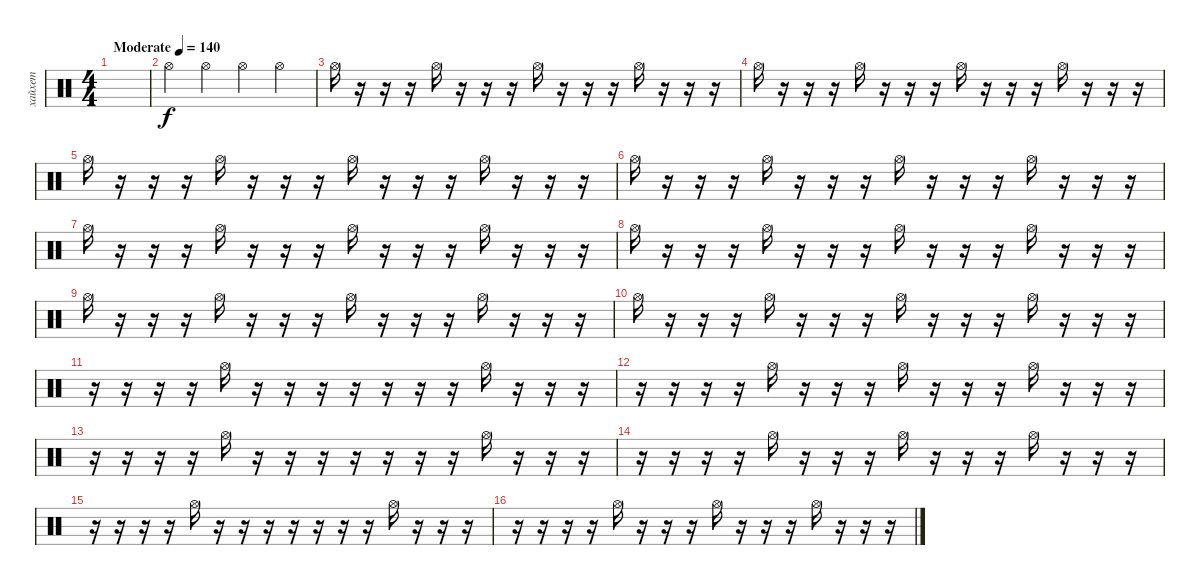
\track ("хайхет" "хайхет") {mute instrument percussion}
\staff {score}
\articulation defaults
\ts (4 4)
\tempo (140 "Moderate")
\clef neutral
\ks c
|
"Hi-Hat (open)".4 "Hi-Hat (open)".4 "Hi-Hat (open)".4 "Hi-Hat (open)".4 |
"Hi-Hat (open)".16 r.16 r.16 r.16 "Hi-Hat (open)".16 r.16 r.16 r.16 "Hi-Hat (open)".16 r.16 r.16 r.16 "Hi-Hat (open)".16 r.16 r.16 r.16 |
"Hi-Hat (open)".16 r.16 r.16 r.16 "Hi-Hat (open)".16 r.16 r.16 r.16 "Hi-Hat (open)".16 r.16 r.16 r.16 "Hi-Hat (open)".16 r.16 r.16 r.16 |
"Hi-Hat (open)".16 r.16 r.16 r.16 "Hi-Hat (open)".16 r.16 r.16 r.16 "Hi-Hat (open)".16 r.16 r.16 r.16 "Hi-Hat (open)".16 r.16 r.16 r.16 |
"Hi-Hat (open)".16 r.16 r.16 r.16 "Hi-Hat (open)".16 r.16 r.16 r.16 "Hi-Hat (open)".16 r.16 r.16 r.16 "Hi-Hat (open)".16 r.16 r.16 r.16 |
"Hi-Hat (open)".16 r.16 r.16 r.16 "Hi-Hat (open)".16 r.16 r.16 r.16 "Hi-Hat (open)".16 r.16 r.16 r.16 "Hi-Hat (open)".16 r.16 r.16 r.16 |
"Hi-Hat (open)".16 r.16 r.16 r.16 "Hi-Hat (open)".16 r.16 r.16 r.16 "Hi-Hat (open)".16 r.16 r.16 r.16 "Hi-Hat (open)".16 r.16 r.16 r.16 |
"Hi-Hat (open)".16 r.16 r.16 r.16 "Hi-Hat (open)".16 r.16 r.16 r.16 "Hi-Hat (open)".16 r.16 r.16 r.16 "Hi-Hat (open)".16 r.16 r.16 r.16 |
"Hi-Hat (open)".16 r.16 r.16 r.16 "Hi-Hat (open)".16 r.16 r.16 r.16 "Hi-Hat (open)".16 r.16 r.16 r.16 "Hi-Hat (open)".16 r.16 r.16 r.16 |
r.16 r.16 r.16 r.16 "Hi-Hat (open)".16 r.16 r.16 r.16 r.16 r.16 r.16 r.16 "Hi-Hat (open)".16 r.16 r.16 r.16 |
r.16 r.16 r.16 r.16 "Hi-Hat (open)".16 r.16 r.16 r.16 "Hi-Hat (open)".16 r.16 r.16 r.16 "Hi-Hat (open)".16 r.16 r.16 r.16 |
r.16 r.16 r.16 r.16 "Hi-Hat (open)".16 r.16 r.16 r.16 r.16 r.16 r.16 r.16 "Hi-Hat (open)".16 r.16 r.16 r.16 |
r.16 r.16 r.16 r.16 "Hi-Hat (open)".16 r.16 r.16 r.16 "Hi-Hat (open)".16 r.16 r.16 r.16 "Hi-Hat (open)".16 r.16 r.16 r.16 |
r.16 r.16 r.16 r.16 "Hi-Hat (open)".16 r.16 r.16 r.16 r.16 r.16 r.16 r.16 "Hi-Hat (open)".16 r.16 r.16 r.16 |
r.16 r.16 r.16 r.16 "Hi-Hat (open)".16 r.16 r.16 r.16 "Hi-Hat (open)".16 r.16 r.16 r.16 "Hi-Hat (open)".16 r.16 r.16 r.16
